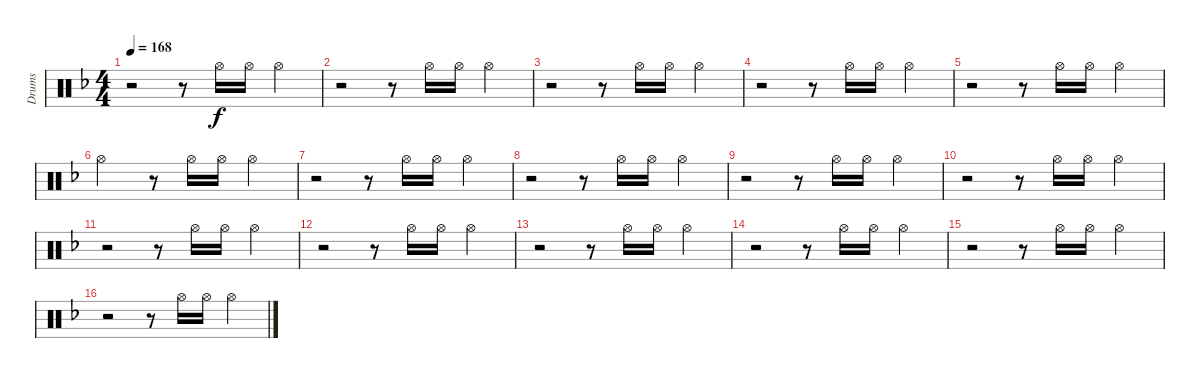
\track ("Drums" "Drums") {instrument percussion}
\staff {score}
\articulation defaults
\ts (4 4)
\tempo 168
\clef neutral
\ks f
r.2{dy f} r.8 "Hi-Hat (open)".16 "Hi-Hat (open)".16 "Hi-Hat (open)".4 |
r.2 r.8 "Hi-Hat (open)".16 "Hi-Hat (open)".16 "Hi-Hat (open)".4 |
r.2 r.8 "Hi-Hat (open)".16 "Hi-Hat (open)".16 "Hi-Hat (open)".4 |
r.2 r.8 "Hi-Hat (open)".16 "Hi-Hat (open)".16 "Hi-Hat (open)".4 |
r.2 r.8 "Hi-Hat (open)".16 "Hi-Hat (open)".16 "Hi-Hat (open)".4 |
"Hi-Hat (open)".2 r.8 "Hi-Hat (open)".16 "Hi-Hat (open)".16 "Hi-Hat (open)".4 |
r.2 r.8 "Hi-Hat (open)".16 "Hi-Hat (open)".16 "Hi-Hat (open)".4 |
r.2 r.8 "Hi-Hat (open)".16 "Hi-Hat (open)".16 "Hi-Hat (open)".4 |
r.2 r.8 "Hi-Hat (open)".16 "Hi-Hat (open)".16 "Hi-Hat (open)".4 |
r.2 r.8 "Hi-Hat (open)".16 "Hi-Hat (open)".16 "Hi-Hat (open)".4 |
r.2 r.8 "Hi-Hat (open)".16 "Hi-Hat (open)".16 "Hi-Hat (open)".4 |
r.2 r.8 "Hi-Hat (open)".16 "Hi-Hat (open)".16 "Hi-Hat (open)".4 |
r.2 r.8 "Hi-Hat (open)".16 "Hi-Hat (open)".16 "Hi-Hat (open)".4 |
r.2 r.8 "Hi-Hat (open)".16 "Hi-Hat (open)".16 "Hi-Hat (open)".4 |
r.2 r.8 "Hi-Hat (open)".16 "Hi-Hat (open)".16 "Hi-Hat (open)".4 |
r.2 r.8 "Hi-Hat (open)".16 "Hi-Hat (open)".16 "Hi-Hat (open)".4
